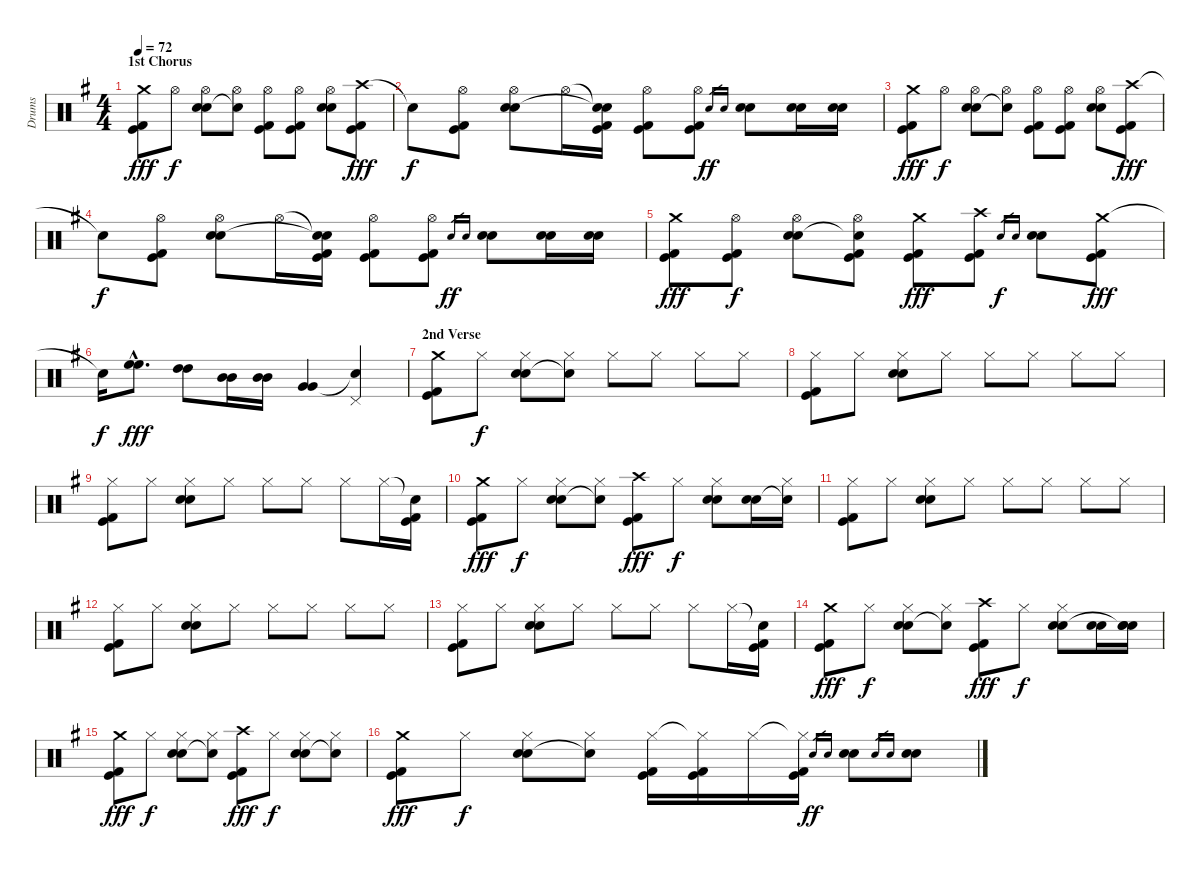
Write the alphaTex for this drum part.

\track ("Drums" "Drums") {instrument percussion}
\staff {score}
\articulation defaults
\ts (4 4)
\section ("" "1st Chorus")
\tempo 72
\clef neutral
\ks g
("Crash medium (hit)" "Kick (hit)" "Kick (hit) 2").8{dy fff} "Hi-Hat (open)".8{dy f} ("Hi-Hat (open)" "Electric Snare (hit)" "Snare (hit) 2").8 ("Hi-Hat (open)" "Snare (hit)"{t}).8 ("Hi-Hat (open)" "Kick (hit)" "Kick (hit) 2").8 ("Hi-Hat (open)" "Kick (hit)" "Kick (hit) 2").8 ("Hi-Hat (open)" "Electric Snare (hit)" "Snare (hit) 2").8 ("Crash high (hit)" "Kick (hit)" "Kick (hit) 2").8{dy fff} |
"Snare (hit)"{t}.8{dy f} ("Hi-Hat (open)" "Kick (hit)" "Kick (hit) 2").8 ("Hi-Hat (open)" "Electric Snare (hit)" "Snare (hit) 2").8 "Hi-Hat (open)".16 ("Snare (hit)"{t} "Snare (hit)"{t} "Kick (hit)" "Kick (hit) 2").16 ("Hi-Hat (open)" "Kick (hit)" "Kick (hit) 2").8 ("Hi-Hat (open)" "Kick (hit)" "Kick (hit) 2").8 "Electric Snare (hit)".16{gr dy ff} "Snare (hit) 2".16{gr} ("Electric Snare (hit)" "Snare (hit) 2").8 ("Electric Snare (hit)" "Snare (hit) 2").16 ("Electric Snare (hit)" "Snare (hit) 2").16 |
("Crash medium (hit)" "Kick (hit)" "Kick (hit) 2").8{dy fff} "Hi-Hat (open)".8{dy f} ("Hi-Hat (open)" "Electric Snare (hit)" "Snare (hit) 2").8 ("Hi-Hat (open)" "Snare (hit)"{t}).8 ("Hi-Hat (open)" "Kick (hit)" "Kick (hit) 2").8 ("Hi-Hat (open)" "Kick (hit)" "Kick (hit) 2").8 ("Hi-Hat (open)" "Electric Snare (hit)" "Snare (hit) 2").8 ("Crash high (hit)" "Kick (hit)" "Kick (hit) 2").8{dy fff} |
"Snare (hit)"{t}.8{dy f} ("Hi-Hat (open)" "Kick (hit)" "Kick (hit) 2").8 ("Hi-Hat (open)" "Electric Snare (hit)" "Snare (hit) 2").8 "Hi-Hat (open)".16 ("Snare (hit)"{t} "Snare (hit)"{t} "Kick (hit)" "Kick (hit) 2").16 ("Hi-Hat (open)" "Kick (hit)" "Kick (hit) 2").8 ("Hi-Hat (open)" "Kick (hit)" "Kick (hit) 2").8 "Electric Snare (hit)".16{gr dy ff} "Snare (hit) 2".16{gr} ("Electric Snare (hit)" "Snare (hit) 2").8 ("Electric Snare (hit)" "Snare (hit) 2").16 ("Electric Snare (hit)" "Snare (hit) 2").16 |
("Crash medium (hit)" "Kick (hit)" "Kick (hit) 2").8{dy fff} ("Hi-Hat (open)" "Kick (hit)" "Kick (hit) 2").8{dy f} ("Hi-Hat (open)" "Electric Snare (hit)" "Snare (hit) 2").8 ("Hi-Hat (open)" "Snare (hit)"{t} "Kick (hit)" "Kick (hit) 2").8 ("Crash medium (hit)" "Kick (hit)" "Kick (hit) 2").8{dy fff} ("Crash high (hit)" "Kick (hit)" "Kick (hit) 2").8 "Electric Snare (hit)".16{gr dy f} "Snare (hit) 2".16{gr} ("Electric Snare (hit)" "Snare (hit) 2").8 ("Crash medium (hit)" "Kick (hit)" "Kick (hit) 2").8{dy fff} |
"Snare (hit)"{t}.16{dy f} ("High Floor Tom (hit)"{hac} "High Floor Tom (hit)"{hac}).8{d dy fff} ("High Tom (hit)" "High Tom (hit)").8 ("Mid Tom (hit)" "Mid Tom (hit)").16 ("Mid Tom (hit)" "Mid Tom (hit)").16 ("Very Low Tom (hit)" "Very Low Tom (hit)").4 ("Pedal Hi-Hat (hit)" "Snare (hit)"{t}).4 |
\section ("" "2nd Verse")
("Crash medium (hit)" "Kick (hit)" "Kick (hit) 2").8 "Hi-Hat (closed)".8{dy f} ("Hi-Hat (closed)" "Electric Snare (hit)" "Snare (hit) 2").8 ("Hi-Hat (closed)" "Snare (hit)"{t}).8 "Hi-Hat (closed)".8 "Hi-Hat (closed)".8 "Hi-Hat (closed)".8 "Hi-Hat (closed)".8 |
("Hi-Hat (closed)" "Kick (hit)" "Kick (hit) 2").8 "Hi-Hat (closed)".8 ("Hi-Hat (closed)" "Electric Snare (hit)" "Snare (hit) 2").8 "Hi-Hat (closed)".8 "Hi-Hat (closed)".8 "Hi-Hat (closed)".8 "Hi-Hat (closed)".8 "Hi-Hat (closed)".8 |
("Hi-Hat (closed)" "Kick (hit)" "Kick (hit) 2").8 "Hi-Hat (closed)".8 ("Hi-Hat (closed)" "Electric Snare (hit)" "Snare (hit) 2").8 "Hi-Hat (closed)".8 "Hi-Hat (closed)".8 "Hi-Hat (closed)".8 "Hi-Hat (closed)".8 "Hi-Hat (closed)".16 ("Snare (hit)"{t} "Kick (hit)" "Kick (hit) 2").16 |
("Crash medium (hit)" "Kick (hit)" "Kick (hit) 2").8{dy fff} "Hi-Hat (closed)".8{dy f} ("Hi-Hat (closed)" "Electric Snare (hit)" "Snare (hit) 2").8 ("Hi-Hat (closed)" "Snare (hit)"{t}).8 ("Crash high (hit)" "Kick (hit)" "Kick (hit) 2").8{dy fff} "Hi-Hat (closed)".8{dy f} ("Hi-Hat (closed)" "Electric Snare (hit)" "Snare (hit) 2").8 ("Electric Snare (hit)" "Snare (hit) 2").16 ("Hi-Hat (closed)" "Snare (hit)"{t}).16 |
("Hi-Hat (closed)" "Kick (hit)" "Kick (hit) 2").8 "Hi-Hat (closed)".8 ("Hi-Hat (closed)" "Electric Snare (hit)" "Snare (hit) 2").8 "Hi-Hat (closed)".8 "Hi-Hat (closed)".8 "Hi-Hat (closed)".8 "Hi-Hat (closed)".8 "Hi-Hat (closed)".8 |
("Hi-Hat (closed)" "Kick (hit)" "Kick (hit) 2").8 "Hi-Hat (closed)".8 ("Hi-Hat (closed)" "Electric Snare (hit)" "Snare (hit) 2").8 "Hi-Hat (closed)".8 "Hi-Hat (closed)".8 "Hi-Hat (closed)".8 "Hi-Hat (closed)".8 "Hi-Hat (closed)".8 |
("Hi-Hat (closed)" "Kick (hit)" "Kick (hit) 2").8 "Hi-Hat (closed)".8 ("Hi-Hat (closed)" "Electric Snare (hit)" "Snare (hit) 2").8 "Hi-Hat (closed)".8 "Hi-Hat (closed)".8 "Hi-Hat (closed)".8 "Hi-Hat (closed)".8 "Hi-Hat (closed)".16 ("Snare (hit)"{t} "Kick (hit)" "Kick (hit) 2").16 |
("Crash medium (hit)" "Kick (hit)" "Kick (hit) 2").8{dy fff} "Hi-Hat (closed)".8{dy f} ("Hi-Hat (closed)" "Electric Snare (hit)" "Snare (hit) 2").8 ("Hi-Hat (closed)" "Snare (hit)"{t}).8 ("Crash high (hit)" "Kick (hit)" "Kick (hit) 2").8{dy fff} "Hi-Hat (closed)".8{dy f} ("Hi-Hat (closed)" "Electric Snare (hit)" "Snare (hit) 2").8 ("Electric Snare (hit)" "Snare (hit) 2").16 ("Electric Snare (hit)" "Snare (hit) 2" "Snare (hit)"{t}).16 |
("Crash medium (hit)" "Kick (hit)" "Kick (hit) 2").8{dy fff} "Hi-Hat (closed)".8{dy f} ("Hi-Hat (closed)" "Electric Snare (hit)" "Snare (hit) 2").8 ("Hi-Hat (closed)" "Snare (hit)"{t}).8 ("Crash high (hit)" "Kick (hit)" "Kick (hit) 2").8{dy fff} "Hi-Hat (closed)".8{dy f} ("Hi-Hat (closed)" "Electric Snare (hit)" "Snare (hit) 2").8 ("Hi-Hat (closed)" "Snare (hit)"{t}).8 |
("Crash medium (hit)" "Kick (hit)" "Kick (hit) 2").8{dy fff} "Hi-Hat (closed)".8{dy f} ("Hi-Hat (closed)" "Electric Snare (hit)" "Snare (hit) 2").8 ("Hi-Hat (closed)" "Snare (hit)"{t}).8 ("Hi-Hat (closed)" "Kick (hit)" "Kick (hit) 2").16 ("Hi-Hat (closed)"{t} "Kick (hit)" "Kick (hit) 2").16 "Hi-Hat (closed)".16 ("Hi-Hat (closed)"{t} "Kick (hit)" "Kick (hit) 2").16 "Electric Snare (hit)".16{gr dy ff} "Snare (hit) 2".16{gr} ("Electric Snare (hit)" "Snare (hit) 2").8 "Electric Snare (hit)".16{gr} "Snare (hit) 2".16{gr} ("Electric Snare (hit)" "Snare (hit) 2").8
